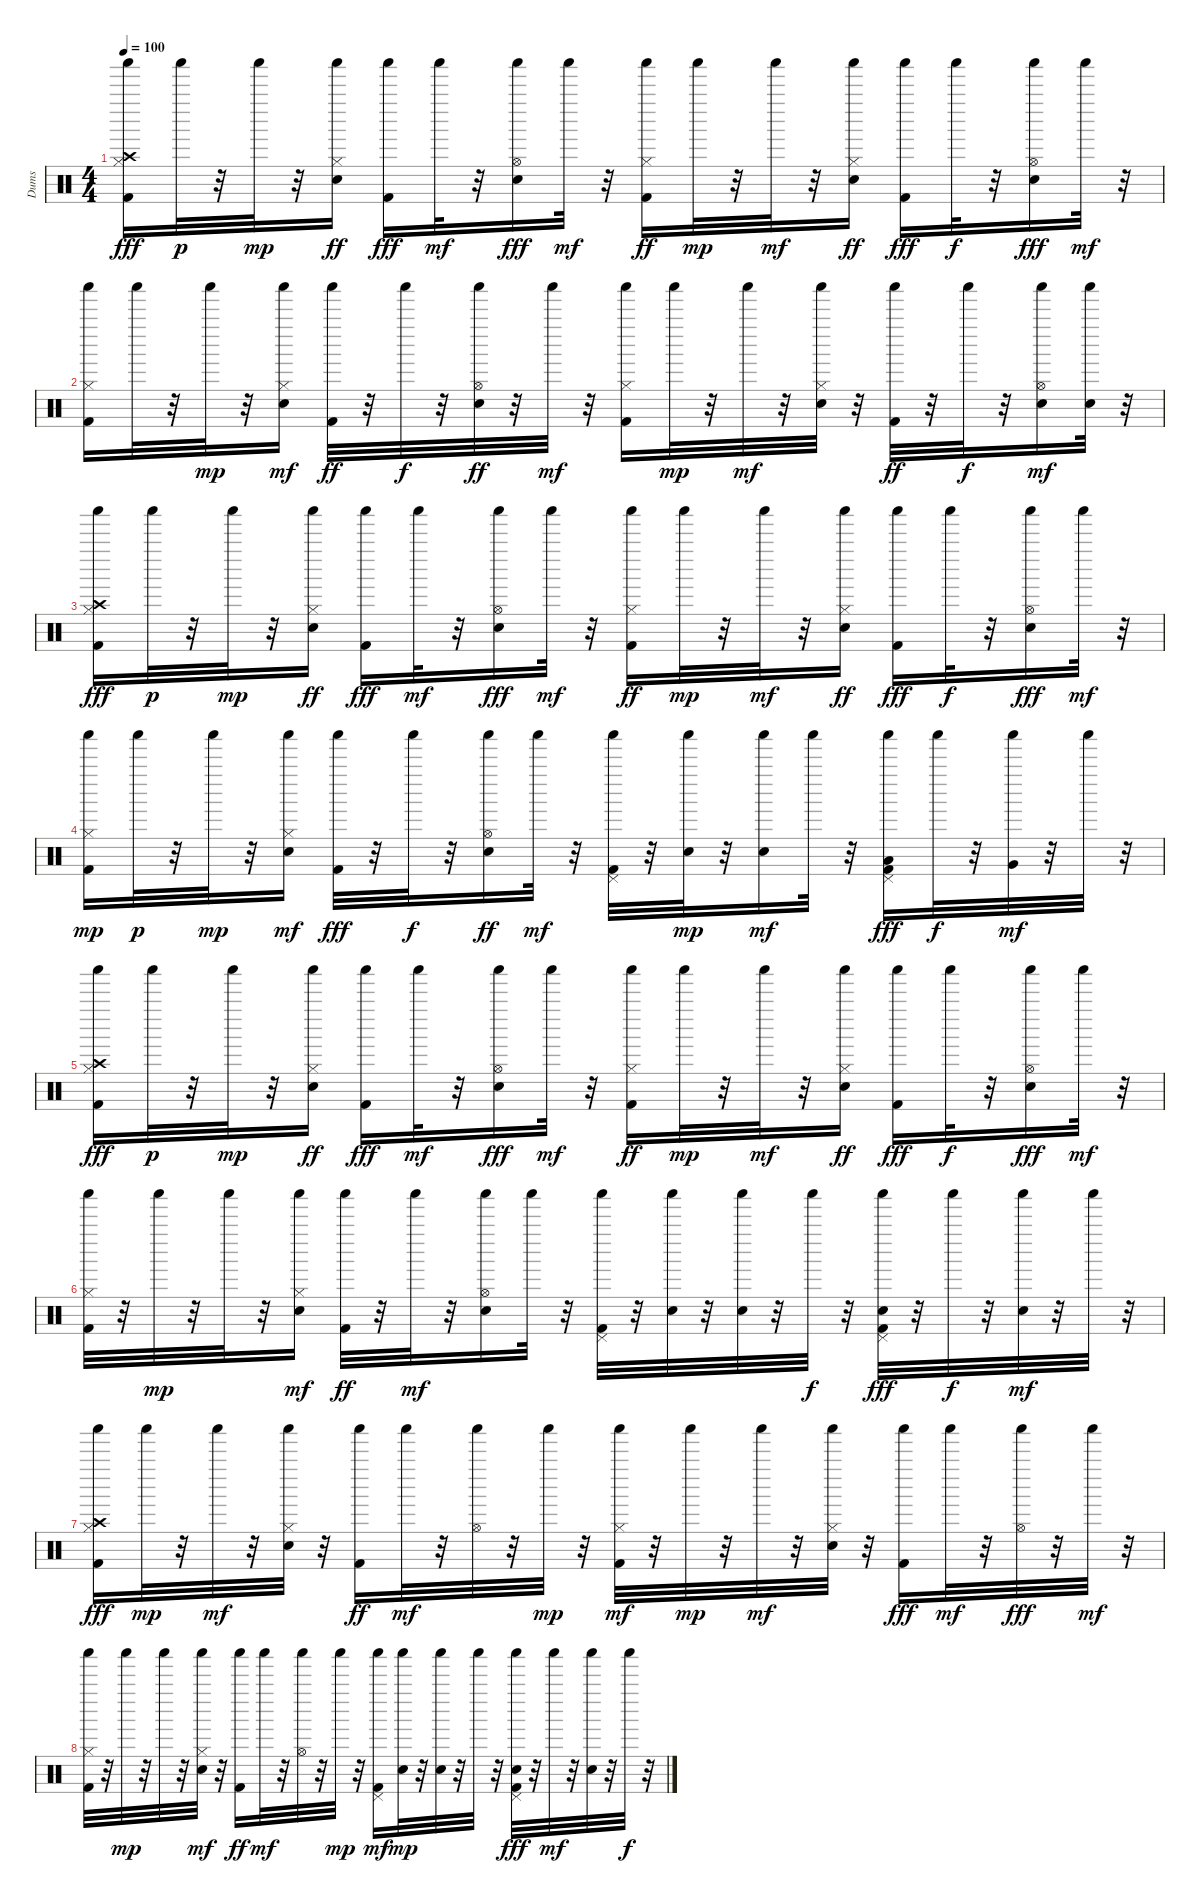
\track ("Dums" "Dums") {instrument percussion}
\staff {score}
\articulation defaults
\ts (4 4)
\tempo 100
\clef neutral
\ks c
("Kick (hit) 2" "Shaker (hit)" "Hi-Hat (closed)" "Crash high (hit)").16{dy fff} "Shaker (hit)".32{dy p} r.32 "Shaker (hit)".32{dy mp} r.32 ("Electric Snare (hit)" "Shaker (hit)" "Hi-Hat (closed)").16{dy ff} ("Shaker (hit)" "Kick (hit) 2").16{dy fff} "Shaker (hit)".32{dy mf} r.32 ("Electric Snare (hit)" "Shaker (hit)" "Hi-Hat (open)").16{dy fff} "Shaker (hit)".32{dy mf} r.32 ("Kick (hit) 2" "Shaker (hit)" "Hi-Hat (closed)").16{dy ff} "Shaker (hit)".32{dy mp} r.32 "Shaker (hit)".32{dy mf} r.32 ("Electric Snare (hit)" "Shaker (hit)" "Hi-Hat (closed)").16{dy ff} ("Shaker (hit)" "Kick (hit) 2").16{dy fff} "Shaker (hit)".32{dy f} r.32 ("Electric Snare (hit)" "Shaker (hit)" "Hi-Hat (open)").16{dy fff} "Shaker (hit)".32{dy mf} r.32 |
("Kick (hit) 2" "Hi-Hat (closed)" "Shaker (hit)").16 "Shaker (hit)".32 r.32 "Shaker (hit)".32{dy mp} r.32 ("Electric Snare (hit)" "Hi-Hat (closed)" "Shaker (hit)").16{dy mf} ("Kick (hit) 2" "Shaker (hit)").32{dy ff} r.32 "Shaker (hit)".32{dy f} r.32 ("Electric Snare (hit)" "Hi-Hat (open)" "Shaker (hit)").32{dy ff} r.32 "Shaker (hit)".32{dy mf} r.32 ("Kick (hit) 2" "Hi-Hat (closed)" "Shaker (hit)").16 "Shaker (hit)".32{dy mp} r.32 "Shaker (hit)".32{dy mf} r.32 ("Electric Snare (hit)" "Hi-Hat (closed)" "Shaker (hit)").32 r.32 ("Kick (hit) 2" "Shaker (hit)").32{dy ff} r.32 "Shaker (hit)".32{dy f} r.32 ("Electric Snare (hit)" "Hi-Hat (open)" "Shaker (hit)").16{dy mf} ("Electric Snare (hit)" "Shaker (hit)").32 r.32 |
("Kick (hit) 2" "Shaker (hit)" "Hi-Hat (closed)" "Crash high (hit)").16{dy fff} "Shaker (hit)".32{dy p} r.32 "Shaker (hit)".32{dy mp} r.32 ("Electric Snare (hit)" "Shaker (hit)" "Hi-Hat (closed)").16{dy ff} ("Shaker (hit)" "Kick (hit) 2").16{dy fff} "Shaker (hit)".32{dy mf} r.32 ("Electric Snare (hit)" "Shaker (hit)" "Hi-Hat (open)").16{dy fff} "Shaker (hit)".32{dy mf} r.32 ("Kick (hit) 2" "Shaker (hit)" "Hi-Hat (closed)").16{dy ff} "Shaker (hit)".32{dy mp} r.32 "Shaker (hit)".32{dy mf} r.32 ("Electric Snare (hit)" "Shaker (hit)" "Hi-Hat (closed)").16{dy ff} ("Shaker (hit)" "Kick (hit) 2").16{dy fff} "Shaker (hit)".32{dy f} r.32 ("Electric Snare (hit)" "Shaker (hit)" "Hi-Hat (open)").16{dy fff} "Shaker (hit)".32{dy mf} r.32 |
("Kick (hit) 2" "Hi-Hat (closed)" "Shaker (hit)").16{dy mp} "Shaker (hit)".32{dy p} r.32 "Shaker (hit)".32{dy mp} r.32 ("Electric Snare (hit)" "Hi-Hat (closed)" "Shaker (hit)").16{dy mf} ("Kick (hit) 2" "Shaker (hit)").32{dy fff} r.32 "Shaker (hit)".32{dy f} r.32 ("Electric Snare (hit)" "Hi-Hat (open)" "Shaker (hit)").16{dy ff} "Shaker (hit)".32{dy mf} r.32 ("Kick (hit) 2" "Pedal Hi-Hat (hit)" "Shaker (hit)").32 r.32 ("Electric Snare (hit)" "Shaker (hit)").32{dy mp} r.32 ("Electric Snare (hit)" "Shaker (hit)").16{dy mf} "Shaker (hit)".32 r.32 ("Kick (hit) 2" "Low Tom (hit)" "Pedal Hi-Hat (hit)" "Shaker (hit)").16{dy fff} "Shaker (hit)".32{dy f} r.32 ("Very Low Tom (hit)" "Shaker (hit)").32{dy mf} r.32 "Shaker (hit)".32 r.32 |
("Kick (hit) 2" "Shaker (hit)" "Hi-Hat (closed)" "Crash high (hit)").16{dy fff} "Shaker (hit)".32{dy p} r.32 "Shaker (hit)".32{dy mp} r.32 ("Electric Snare (hit)" "Shaker (hit)" "Hi-Hat (closed)").16{dy ff} ("Shaker (hit)" "Kick (hit) 2").16{dy fff} "Shaker (hit)".32{dy mf} r.32 ("Electric Snare (hit)" "Shaker (hit)" "Hi-Hat (open)").16{dy fff} "Shaker (hit)".32{dy mf} r.32 ("Kick (hit) 2" "Shaker (hit)" "Hi-Hat (closed)").16{dy ff} "Shaker (hit)".32{dy mp} r.32 "Shaker (hit)".32{dy mf} r.32 ("Electric Snare (hit)" "Shaker (hit)" "Hi-Hat (closed)").16{dy ff} ("Shaker (hit)" "Kick (hit) 2").16{dy fff} "Shaker (hit)".32{dy f} r.32 ("Electric Snare (hit)" "Shaker (hit)" "Hi-Hat (open)").16{dy fff} "Shaker (hit)".32{dy mf} r.32 |
("Kick (hit) 2" "Hi-Hat (closed)" "Shaker (hit)").32 r.32 "Shaker (hit)".32{dy mp} r.32 "Shaker (hit)".32 r.32 ("Electric Snare (hit)" "Hi-Hat (closed)" "Shaker (hit)").16{dy mf} ("Kick (hit) 2" "Shaker (hit)").32{dy ff} r.32 "Shaker (hit)".32{dy mf} r.32 ("Electric Snare (hit)" "Hi-Hat (open)" "Shaker (hit)").16 "Shaker (hit)".32 r.32 ("Kick (hit) 2" "Pedal Hi-Hat (hit)" "Shaker (hit)").32 r.32 ("Electric Snare (hit)" "Shaker (hit)").32 r.32 ("Electric Snare (hit)" "Shaker (hit)").32 r.32 "Shaker (hit)".32{dy f} r.32 ("Kick (hit) 2" "Electric Snare (hit)" "Pedal Hi-Hat (hit)" "Shaker (hit)").32{dy fff} r.32 "Shaker (hit)".32{dy f} r.32 ("Electric Snare (hit)" "Shaker (hit)").32{dy mf} r.32 "Shaker (hit)".32 r.32 |
("Kick (hit) 2" "Hi-Hat (closed)" "Shaker (hit)" "Crash high (hit)").16{dy fff} "Shaker (hit)".32{dy mp} r.32 "Shaker (hit)".32{dy mf} r.32 ("Electric Snare (hit)" "Hi-Hat (closed)" "Shaker (hit)").32 r.32 ("Kick (hit) 2" "Shaker (hit)").16{dy ff} "Shaker (hit)".32{dy mf} r.32 ("Hi-Hat (open)" "Shaker (hit)").32 r.32 "Shaker (hit)".32{dy mp} r.32 ("Kick (hit) 2" "Hi-Hat (closed)" "Shaker (hit)").32{dy mf} r.32 "Shaker (hit)".32{dy mp} r.32 "Shaker (hit)".32{dy mf} r.32 ("Electric Snare (hit)" "Hi-Hat (closed)" "Shaker (hit)").32 r.32 ("Kick (hit) 2" "Shaker (hit)").16{dy fff} "Shaker (hit)".32{dy mf} r.32 ("Hi-Hat (open)" "Shaker (hit)").32{dy fff} r.32 "Shaker (hit)".32{dy mf} r.32 |
("Kick (hit) 2" "Hi-Hat (closed)" "Shaker (hit)").32 r.32 "Shaker (hit)".32{dy mp} r.32 "Shaker (hit)".32 r.32 ("Electric Snare (hit)" "Hi-Hat (closed)" "Shaker (hit)").32{dy mf} r.32 ("Kick (hit) 2" "Shaker (hit)").16{dy ff} "Shaker (hit)".32{dy mf} r.32 ("Hi-Hat (open)" "Shaker (hit)").32 r.32 "Shaker (hit)".32{dy mp} r.32 ("Kick (hit) 2" "Pedal Hi-Hat (hit)" "Shaker (hit)").16{dy mf} ("Electric Snare (hit)" "Shaker (hit)").32{dy mp} r.32 ("Electric Snare (hit)" "Shaker (hit)").32 r.32 "Shaker (hit)".32 r.32 ("Kick (hit) 2" "Electric Snare (hit)" "Pedal Hi-Hat (hit)" "Shaker (hit)").32{dy fff} r.32 "Shaker (hit)".32{dy mf} r.32 ("Electric Snare (hit)" "Shaker (hit)").32 r.32 "Shaker (hit)".32{dy f} r.32
